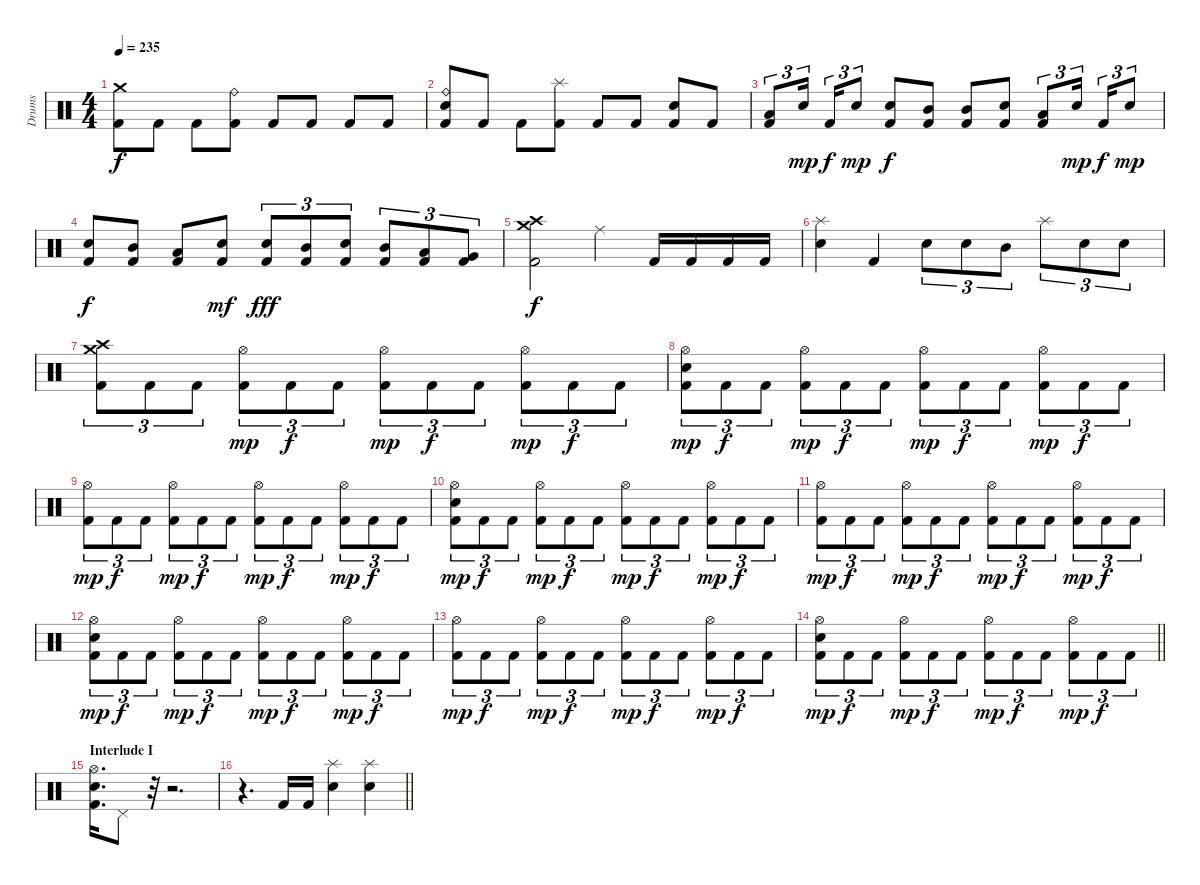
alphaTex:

\track ("Drums" "Drums") {instrument percussion}
\staff {score}
\articulation defaults
\ts (4 4)
\tempo 235
\clef neutral
\ks c
("Crash medium (hit)" "Kick (hit) 2").8{dy f} "Kick (hit) 2".8 "Kick (hit) 2".8 ("Ride (bell)" "Kick (hit) 2").8 "Kick (hit) 2".8 "Kick (hit) 2".8 "Kick (hit) 2".8 "Kick (hit) 2".8 |
("Ride (bell)" "Electric Snare (hit)" "Kick (hit) 2").8 "Kick (hit) 2".8 "Kick (hit) 2".8 ("Splash (hit)" "Kick (hit) 2").8 "Kick (hit) 2".8 "Kick (hit) 2".8 ("Electric Snare (hit)" "Kick (hit) 2").8 "Kick (hit) 2".8 |
("Low Tom (hit)" "Kick (hit) 2").8{tu (3 2)} "Electric Snare (hit)".16{tu (3 2) dy mp beam splitsecondary} "Kick (hit) 2".16{tu (3 2) dy f} "Electric Snare (hit)".8{tu (3 2) dy mp} ("Electric Snare (hit)" "Kick (hit) 2").8{dy f} ("Mid Tom (hit)" "Kick (hit) 2").8 ("Mid Tom (hit)" "Kick (hit) 2").8 ("Electric Snare (hit)" "Kick (hit) 2").8 ("Low Tom (hit)" "Kick (hit) 2").8{tu (3 2)} "Electric Snare (hit)".16{tu (3 2) dy mp beam splitsecondary} "Kick (hit) 2".16{tu (3 2) dy f} "Electric Snare (hit)".8{tu (3 2) dy mp} |
("Electric Snare (hit)" "Kick (hit) 2").8{dy f} ("Mid Tom (hit)" "Kick (hit) 2").8 ("Low Tom (hit)" "Kick (hit) 2").8 ("Electric Snare (hit)" "Kick (hit) 2").8{dy mf} ("Electric Snare (hit)" "Kick (hit) 2").8{tu (3 2) dy fff} ("Mid Tom (hit)" "Kick (hit) 2").8{tu (3 2)} ("Electric Snare (hit)" "Kick (hit) 2").8{tu (3 2)} ("Mid Tom (hit)" "Kick (hit) 2").8{tu (3 2)} ("Low Tom (hit)" "Kick (hit) 2").8{tu (3 2)} ("Very Low Tom (hit)" "Kick (hit) 2").8{tu (3 2)} |
("Crash medium (hit)" "Crash high (hit)" "Kick (hit) 2").2{dy f} "Ride (middle)".4 "Kick (hit) 2".16 "Kick (hit) 2".16 "Kick (hit) 2".16 "Kick (hit) 2".16 |
("Splash (hit)" "Electric Snare (hit)").4 "Kick (hit) 2".4 "Electric Snare (hit)".8{tu (3 2)} "Electric Snare (hit)".8{tu (3 2)} "Mid Tom (hit)".8{tu (3 2)} "Splash (hit)".8{tu (3 2)} "Electric Snare (hit)".8{tu (3 2)} "Electric Snare (hit)".8{tu (3 2)} |
("Crash medium (hit)" "Crash high (hit)" "Kick (hit) 2").8{tu (3 2) volume 13} "Kick (hit) 2".8{tu (3 2)} "Kick (hit) 2".8{tu (3 2)} ("Hi-Hat (open)" "Kick (hit) 2").8{tu (3 2) dy mp} "Kick (hit) 2".8{tu (3 2) dy f} "Kick (hit) 2".8{tu (3 2)} ("Hi-Hat (open)" "Kick (hit) 2").8{tu (3 2) dy mp} "Kick (hit) 2".8{tu (3 2) dy f} "Kick (hit) 2".8{tu (3 2)} ("Hi-Hat (open)" "Kick (hit) 2").8{tu (3 2) dy mp} "Kick (hit) 2".8{tu (3 2) dy f} "Kick (hit) 2".8{tu (3 2)} |
("Hi-Hat (open)" "Electric Snare (hit)" "Kick (hit) 2").8{tu (3 2) dy mp} "Kick (hit) 2".8{tu (3 2) dy f} "Kick (hit) 2".8{tu (3 2)} ("Hi-Hat (open)" "Kick (hit) 2").8{tu (3 2) dy mp} "Kick (hit) 2".8{tu (3 2) dy f} "Kick (hit) 2".8{tu (3 2)} ("Hi-Hat (open)" "Kick (hit) 2").8{tu (3 2) dy mp} "Kick (hit) 2".8{tu (3 2) dy f} "Kick (hit) 2".8{tu (3 2)} ("Hi-Hat (open)" "Kick (hit) 2").8{tu (3 2) dy mp} "Kick (hit) 2".8{tu (3 2) dy f} "Kick (hit) 2".8{tu (3 2)} |
("Hi-Hat (open)" "Kick (hit) 2").8{tu (3 2) dy mp} "Kick (hit) 2".8{tu (3 2) dy f} "Kick (hit) 2".8{tu (3 2)} ("Hi-Hat (open)" "Kick (hit) 2").8{tu (3 2) dy mp} "Kick (hit) 2".8{tu (3 2) dy f} "Kick (hit) 2".8{tu (3 2)} ("Hi-Hat (open)" "Kick (hit) 2").8{tu (3 2) dy mp} "Kick (hit) 2".8{tu (3 2) dy f} "Kick (hit) 2".8{tu (3 2)} ("Hi-Hat (open)" "Kick (hit) 2").8{tu (3 2) dy mp} "Kick (hit) 2".8{tu (3 2) dy f} "Kick (hit) 2".8{tu (3 2)} |
("Hi-Hat (open)" "Electric Snare (hit)" "Kick (hit) 2").8{tu (3 2) dy mp} "Kick (hit) 2".8{tu (3 2) dy f} "Kick (hit) 2".8{tu (3 2)} ("Hi-Hat (open)" "Kick (hit) 2").8{tu (3 2) dy mp} "Kick (hit) 2".8{tu (3 2) dy f} "Kick (hit) 2".8{tu (3 2)} ("Hi-Hat (open)" "Kick (hit) 2").8{tu (3 2) dy mp} "Kick (hit) 2".8{tu (3 2) dy f} "Kick (hit) 2".8{tu (3 2)} ("Hi-Hat (open)" "Kick (hit) 2").8{tu (3 2) dy mp} "Kick (hit) 2".8{tu (3 2) dy f} "Kick (hit) 2".8{tu (3 2)} |
("Hi-Hat (open)" "Kick (hit) 2").8{tu (3 2) dy mp} "Kick (hit) 2".8{tu (3 2) dy f} "Kick (hit) 2".8{tu (3 2)} ("Hi-Hat (open)" "Kick (hit) 2").8{tu (3 2) dy mp} "Kick (hit) 2".8{tu (3 2) dy f} "Kick (hit) 2".8{tu (3 2)} ("Hi-Hat (open)" "Kick (hit) 2").8{tu (3 2) dy mp} "Kick (hit) 2".8{tu (3 2) dy f} "Kick (hit) 2".8{tu (3 2)} ("Hi-Hat (open)" "Kick (hit) 2").8{tu (3 2) dy mp} "Kick (hit) 2".8{tu (3 2) dy f} "Kick (hit) 2".8{tu (3 2)} |
("Hi-Hat (open)" "Electric Snare (hit)" "Kick (hit) 2").8{tu (3 2) dy mp} "Kick (hit) 2".8{tu (3 2) dy f} "Kick (hit) 2".8{tu (3 2)} ("Hi-Hat (open)" "Kick (hit) 2").8{tu (3 2) dy mp} "Kick (hit) 2".8{tu (3 2) dy f} "Kick (hit) 2".8{tu (3 2)} ("Hi-Hat (open)" "Kick (hit) 2").8{tu (3 2) dy mp} "Kick (hit) 2".8{tu (3 2) dy f} "Kick (hit) 2".8{tu (3 2)} ("Hi-Hat (open)" "Kick (hit) 2").8{tu (3 2) dy mp} "Kick (hit) 2".8{tu (3 2) dy f} "Kick (hit) 2".8{tu (3 2)} |
("Hi-Hat (open)" "Kick (hit) 2").8{tu (3 2) dy mp} "Kick (hit) 2".8{tu (3 2) dy f} "Kick (hit) 2".8{tu (3 2)} ("Hi-Hat (open)" "Kick (hit) 2").8{tu (3 2) dy mp} "Kick (hit) 2".8{tu (3 2) dy f} "Kick (hit) 2".8{tu (3 2)} ("Hi-Hat (open)" "Kick (hit) 2").8{tu (3 2) dy mp} "Kick (hit) 2".8{tu (3 2) dy f} "Kick (hit) 2".8{tu (3 2)} ("Hi-Hat (open)" "Kick (hit) 2").8{tu (3 2) dy mp} "Kick (hit) 2".8{tu (3 2) dy f} "Kick (hit) 2".8{tu (3 2)} |
\barLineRight lightlight
("Hi-Hat (open)" "Electric Snare (hit)" "Kick (hit) 2").8{tu (3 2) dy mp} "Kick (hit) 2".8{tu (3 2) dy f} "Kick (hit) 2".8{tu (3 2)} ("Hi-Hat (open)" "Kick (hit) 2").8{tu (3 2) dy mp} "Kick (hit) 2".8{tu (3 2) dy f} "Kick (hit) 2".8{tu (3 2)} ("Hi-Hat (open)" "Kick (hit) 2").8{tu (3 2) dy mp} "Kick (hit) 2".8{tu (3 2) dy f} "Kick (hit) 2".8{tu (3 2)} ("Hi-Hat (open)" "Kick (hit) 2").8{tu (3 2) dy mp} "Kick (hit) 2".8{tu (3 2) dy f} "Kick (hit) 2".8{tu (3 2)} |
\section ("" "Interlude I")
("Hi-Hat (open)" "Electric Snare (hit)" "Kick (hit) 2").16{d volume 16} "Pedal Hi-Hat (hit)".8 r.32 r.2{d} |
\barLineRight lightlight
r.4{d} "Kick (hit) 2".16 "Kick (hit) 2".16 ("Splash (hit)" "Electric Snare (hit)").4 ("Splash (hit)" "Electric Snare (hit)").4
